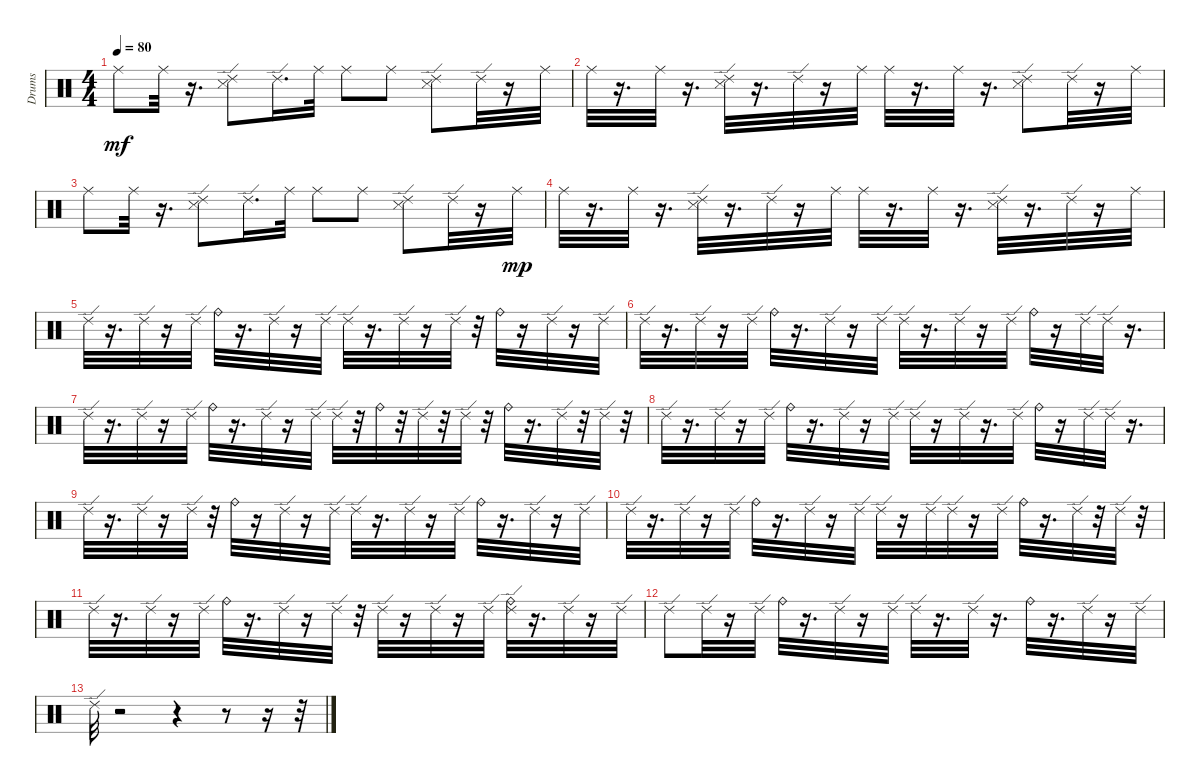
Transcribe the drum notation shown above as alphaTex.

\track ("Drums   " "Drums   ") {instrument percussion}
\staff {score}
\articulation defaults
\ts (4 4)
\tempo 80
\clef neutral
\ks c "Ride (middle)".8{dy mf} "Ride (middle)".32
r.16{d} ("Snare (side stick) 3" "Ride (edge) 2").8 "Ride (edge) 2".16{d} "Ride (middle)".32 "Ride (middle)".8 "Ride (middle)".8 ("Snare (side stick) 3" "Ride (edge) 2").8 "Ride (edge) 2".32 r.16 "Ride (middle)".32 |
"Ride (middle)".32 r.16{d} "Ride (middle)".32 r.16{d} ("Snare (side stick) 3" "Ride (edge) 2").32 r.16{d} "Ride (edge) 2".32 r.16 "Ride (middle)".32 "Ride (middle)".32 r.16{d} "Ride (middle)".32 r.16{d} ("Snare (side stick) 3" "Ride (edge) 2").8 "Ride (edge) 2".32 r.16 "Ride (middle)".32 |
"Ride (middle)".8 "Ride (middle)".32 r.16{d} ("Snare (side stick) 3" "Ride (edge) 2").8 "Ride (edge) 2".16{d} "Ride (middle)".32 "Ride (middle)".8 "Ride (middle)".8 ("Snare (side stick) 3" "Ride (edge) 2").8 "Ride (edge) 2".32 r.16 "Ride (middle)".32{dy mp} |
"Ride (middle)".32 r.16{d} "Ride (middle)".32 r.16{d} ("Snare (side stick) 3" "Ride (edge) 2").32 r.16{d} "Ride (edge) 2".32 r.16 "Ride (middle)".32 "Ride (middle)".32 r.16{d} "Ride (middle)".32 r.16{d} ("Snare (side stick) 3" "Ride (edge) 2").32 r.16{d} "Ride (edge) 2".32 r.16 "Ride (middle)".32 |
"Ride (edge) 2".32 r.16{d} "Ride (edge) 2".32 r.16 "Ride (edge) 2".32 "Ride (bell)".32 r.16{d} "Ride (edge) 2".32 r.16 "Ride (edge) 2".32 "Ride (edge) 2".32 r.16{d} "Ride (edge) 2".32 r.16 "Ride (edge) 2".32 r.32 "Ride (bell)".32 r.16 "Ride (edge) 2".32 r.16 "Ride (edge) 2".32 |
"Ride (edge) 2".32 r.16{d} "Ride (edge) 2".32 r.16 "Ride (edge) 2".32 "Ride (bell)".32 r.16{d} "Ride (edge) 2".32 r.16 "Ride (edge) 2".32 "Ride (edge) 2".32 r.16{d} "Ride (edge) 2".32 r.16 "Ride (edge) 2".32 "Ride (bell)".32 r.16 "Ride (edge) 2".32 "Ride (edge) 2".32 r.16{d} |
"Ride (edge) 2".32 r.16{d} "Ride (edge) 2".32 r.16 "Ride (edge) 2".32 "Ride (bell)".32 r.16{d} "Ride (edge) 2".32 r.16 "Ride (edge) 2".32 "Ride (edge) 2".32 r.32 "Ride (bell)".32 r.32 "Ride (edge) 2".32 r.32 "Ride (edge) 2".32 r.32 "Ride (bell)".32 r.16{d} "Ride (edge) 2".32 r.32 "Ride (edge) 2".32 r.32 |
"Ride (edge) 2".32 r.16{d} "Ride (edge) 2".32 r.16 "Ride (edge) 2".32 "Ride (bell)".32 r.16{d} "Ride (edge) 2".32 r.16 "Ride (edge) 2".32 "Ride (edge) 2".32 r.16 "Ride (edge) 2".32 r.16{d} "Ride (edge) 2".32 "Ride (bell)".32 r.16 "Ride (edge) 2".32 "Ride (edge) 2".32 r.16{d} |
"Ride (edge) 2".32 r.16{d} "Ride (edge) 2".32 r.16 "Ride (edge) 2".32 r.32 "Ride (bell)".32 r.16 "Ride (edge) 2".32 r.16 "Ride (edge) 2".32 "Ride (edge) 2".32 r.16{d} "Ride (edge) 2".32 r.16 "Ride (edge) 2".32 "Ride (bell)".32 r.16{d} "Ride (edge) 2".32 r.16 "Ride (edge) 2".32 |
"Ride (edge) 2".32 r.16{d} "Ride (edge) 2".32 r.16 "Ride (edge) 2".32 "Ride (bell)".32 r.16{d} "Ride (edge) 2".32 r.16 "Ride (edge) 2".32 "Ride (edge) 2".32 r.16 "Ride (edge) 2".32 "Ride (edge) 2".32 r.16 "Ride (edge) 2".32 "Ride (bell)".32 r.16{d} "Ride (edge) 2".32 r.32 "Ride (edge) 2".32 r.32 |
"Ride (edge) 2".32 r.16{d} "Ride (edge) 2".32 r.16 "Ride (edge) 2".32 "Ride (bell)".32 r.16{d} "Ride (edge) 2".32 r.16 "Ride (edge) 2".32 r.32 "Ride (edge) 2".32 r.16 "Ride (edge) 2".32 r.16 "Ride (edge) 2".32 ("Ride (bell)" "Ride (edge) 2").32 r.16{d} "Ride (edge) 2".32 r.16 "Ride (edge) 2".32 |
"Ride (edge) 2".8 "Ride (edge) 2".32 r.16 "Ride (edge) 2".32 "Ride (bell)".32 r.16{d} "Ride (edge) 2".32 r.16 "Ride (edge) 2".32 "Ride (edge) 2".32 r.16{d} "Ride (edge) 2".32 r.16{d} "Ride (bell)".32 r.16{d} "Ride (edge) 2".32 r.16 "Ride (edge) 2".32 |
"Ride (edge) 2".32 r.2 r.4 r.8 r.16 r.32
